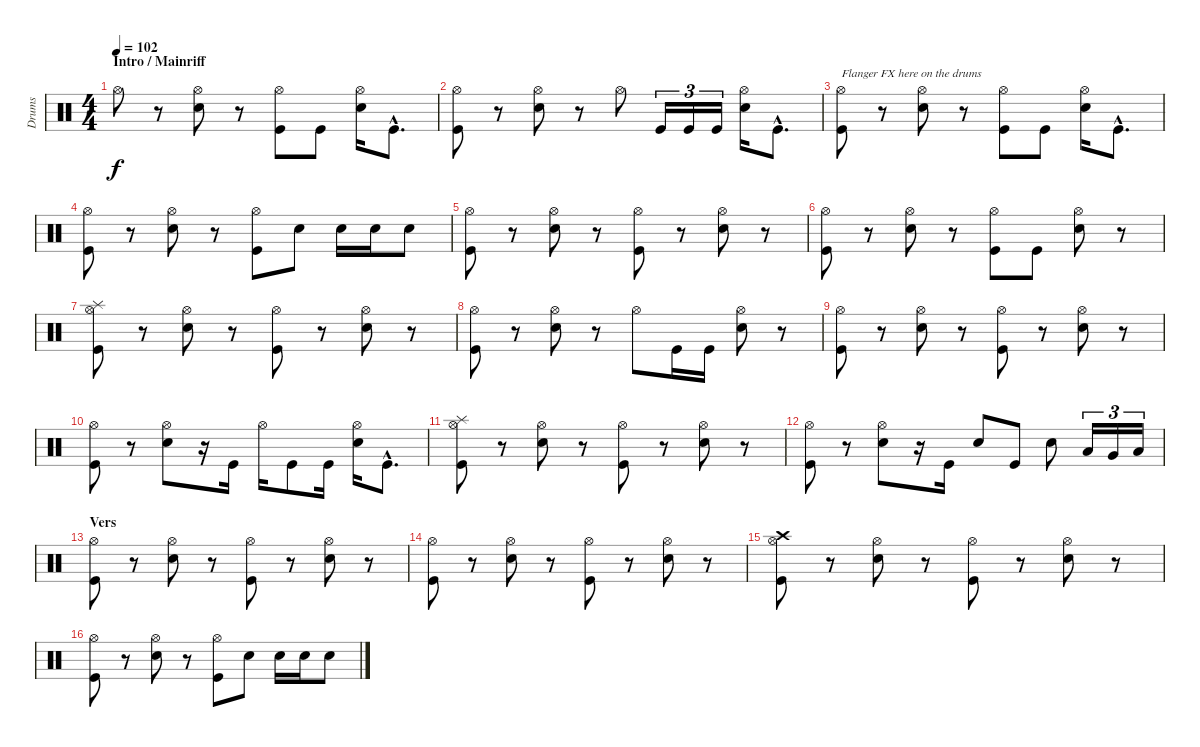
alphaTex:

\track ("Drums" "Drums") {instrument percussion}
\staff {score}
\articulation defaults
\ts (4 4)
\section ("" "Intro / Mainriff")
\tempo 102
\clef neutral
\ks c "Hi-Hat (open)".8{dy f}
r.8 ("Hi-Hat (open)" "Snare (hit) 2").8 r.8 ("Hi-Hat (open)" "Kick (hit)").8 "Kick (hit)".8 ("Hi-Hat (open)" "Snare (hit) 2").16 "Kick (hit)"{hac}.8{d} |
("Hi-Hat (open)" "Kick (hit)").8 r.8 ("Hi-Hat (open)" "Snare (hit) 2").8 r.8 "Hi-Hat (open)".8 "Kick (hit)".16{tu (3 2)} "Kick (hit)".16{tu (3 2)} "Kick (hit)".16{tu (3 2)} ("Hi-Hat (open)" "Snare (hit) 2").16 "Kick (hit)"{hac}.8{d} |
("Hi-Hat (open)" "Kick (hit)").8{txt "Flanger FX here on the drums"} r.8 ("Hi-Hat (open)" "Snare (hit) 2").8 r.8 ("Hi-Hat (open)" "Kick (hit)").8 "Kick (hit)".8 ("Hi-Hat (open)" "Snare (hit) 2").16 "Kick (hit)"{hac}.8{d} |
("Hi-Hat (open)" "Kick (hit)").8 r.8 ("Hi-Hat (open)" "Snare (hit) 2").8 r.8 ("Hi-Hat (open)" "Kick (hit)").8 "Snare (hit) 2".8 "Snare (hit) 2".16 "Snare (hit) 2".16 "Snare (hit) 2".8 |
("Hi-Hat (open)" "Kick (hit)").8 r.8 ("Hi-Hat (open)" "Snare (hit) 2").8 r.8 ("Hi-Hat (open)" "Kick (hit)").8 r.8 ("Hi-Hat (open)" "Snare (hit) 2").8 r.8 |
("Hi-Hat (open)" "Kick (hit)").8 r.8 ("Hi-Hat (open)" "Snare (hit) 2").8 r.8 ("Hi-Hat (open)" "Kick (hit)").8 "Kick (hit)".8 ("Hi-Hat (open)" "Snare (hit) 2").8 r.8 |
("Hi-Hat (open)" "Splash (hit)" "Kick (hit)").8 r.8 ("Hi-Hat (open)" "Snare (hit) 2").8 r.8 ("Hi-Hat (open)" "Kick (hit)").8 r.8 ("Hi-Hat (open)" "Snare (hit) 2").8 r.8 |
("Hi-Hat (open)" "Kick (hit)").8 r.8 ("Hi-Hat (open)" "Snare (hit) 2").8 r.8 "Hi-Hat (open)".8 "Kick (hit)".16 "Kick (hit)".16 ("Hi-Hat (open)" "Snare (hit) 2").8 r.8 |
("Hi-Hat (open)" "Kick (hit)").8 r.8 ("Hi-Hat (open)" "Snare (hit) 2").8 r.8 ("Hi-Hat (open)" "Kick (hit)").8 r.8 ("Hi-Hat (open)" "Snare (hit) 2").8 r.8 |
("Hi-Hat (open)" "Kick (hit)").8 r.8 ("Hi-Hat (open)" "Snare (hit) 2").8 r.16 "Kick (hit)".16 "Hi-Hat (open)".16 "Kick (hit)".8 "Kick (hit)".16 ("Hi-Hat (open)" "Snare (hit) 2").16 "Kick (hit)"{hac}.8{d} |
("Hi-Hat (open)" "Splash (hit)" "Kick (hit)").8 r.8 ("Hi-Hat (open)" "Snare (hit) 2").8 r.8 ("Hi-Hat (open)" "Kick (hit)").8 r.8 ("Hi-Hat (open)" "Snare (hit) 2").8 r.8 |
("Hi-Hat (open)" "Kick (hit)").8 r.8 ("Hi-Hat (open)" "Snare (hit) 2").8 r.16 "Kick (hit)".16 "Snare (hit) 2".8 "Kick (hit)".8 "Snare (hit) 2".8 "Low Tom (hit)".16{tu (3 2)} "Very Low Tom (hit)".16{tu (3 2)} "Low Floor Tom (hit)".16{tu (3 2)} |
\section ("" "Vers")
("Hi-Hat (open)" "Kick (hit)").8 r.8 ("Hi-Hat (open)" "Snare (hit) 2").8 r.8 ("Hi-Hat (open)" "Kick (hit)").8 r.8 ("Hi-Hat (open)" "Snare (hit) 2").8 r.8 |
("Hi-Hat (open)" "Kick (hit)").8 r.8 ("Hi-Hat (open)" "Snare (hit) 2").8 r.8 ("Hi-Hat (open)" "Kick (hit)").8 r.8 ("Hi-Hat (open)" "Snare (hit) 2").8 r.8 |
("Hi-Hat (open)" "Crash high (hit)" "Kick (hit)").8 r.8 ("Hi-Hat (open)" "Snare (hit) 2").8 r.8 ("Hi-Hat (open)" "Kick (hit)").8 r.8 ("Hi-Hat (open)" "Snare (hit) 2").8 r.8 |
("Hi-Hat (open)" "Kick (hit)").8 r.8 ("Hi-Hat (open)" "Snare (hit) 2").8 r.8 ("Hi-Hat (open)" "Kick (hit)").8 "Snare (hit) 2".8 "Snare (hit) 2".16 "Snare (hit) 2".16 "Snare (hit) 2".8
